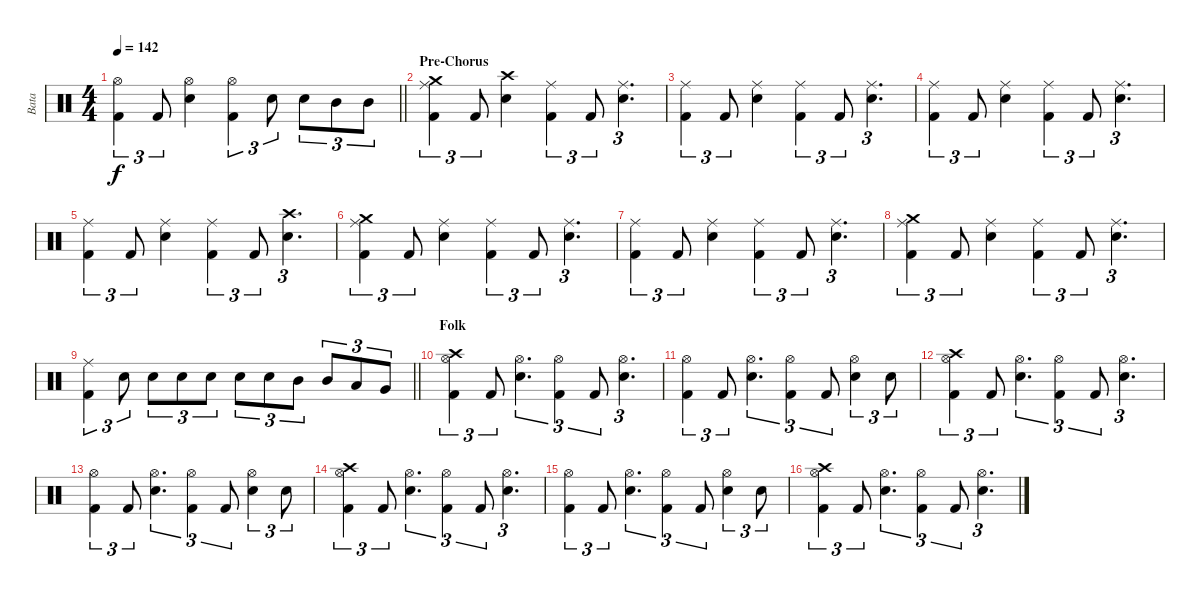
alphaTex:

\track ("Bata" "Bata") {instrument percussion}
\staff {score}
\articulation defaults
\ts (4 4)
\tempo 142
\clef neutral
\barLineRight lightlight
\ks c
("Hi-Hat (open)" "Kick (hit) 2").4{tu (3 2) dy f} "Kick (hit) 2".8{tu (3 2)} ("Hi-Hat (open)" "Electric Snare (hit)").4 ("Hi-Hat (open)" "Kick (hit) 2").4{tu (3 2)} "Electric Snare (hit)".8{tu (3 2)} "Electric Snare (hit)".8{tu (3 2)} "Mid Tom (hit)".8{tu (3 2)} "Mid Tom (hit)".8{tu (3 2)} |
\section ("" "Pre-Chorus")
("Crash medium (hit)" "Ride (middle)" "Kick (hit) 2").4{tu (3 2)} "Kick (hit) 2".8{tu (3 2)} ("Crash high (hit)" "Electric Snare (hit)").4 ("Ride (middle)" "Kick (hit) 2").4{tu (3 2)} "Kick (hit) 2".8{tu (3 2)} ("Ride (middle)" "Electric Snare (hit)").4{d tu (3 2)} |
("Ride (middle)" "Kick (hit) 2").4{tu (3 2)} "Kick (hit) 2".8{tu (3 2)} ("Ride (middle)" "Electric Snare (hit)").4 ("Ride (middle)" "Kick (hit) 2").4{tu (3 2)} "Kick (hit) 2".8{tu (3 2)} ("Ride (middle)" "Electric Snare (hit)").4{d tu (3 2)} |
("Ride (middle)" "Kick (hit) 2").4{tu (3 2)} "Kick (hit) 2".8{tu (3 2)} ("Ride (middle)" "Electric Snare (hit)").4 ("Ride (middle)" "Kick (hit) 2").4{tu (3 2)} "Kick (hit) 2".8{tu (3 2)} ("Ride (middle)" "Electric Snare (hit)").4{d tu (3 2)} |
("Ride (middle)" "Kick (hit) 2").4{tu (3 2)} "Kick (hit) 2".8{tu (3 2)} ("Ride (middle)" "Electric Snare (hit)").4 ("Ride (middle)" "Kick (hit) 2").4{tu (3 2)} "Kick (hit) 2".8{tu (3 2)} ("Crash high (hit)" "Electric Snare (hit)").4{d tu (3 2)} |
("Crash medium (hit)" "Ride (middle)" "Kick (hit) 2").4{tu (3 2)} "Kick (hit) 2".8{tu (3 2)} ("Ride (middle)" "Electric Snare (hit)").4 ("Ride (middle)" "Kick (hit) 2").4{tu (3 2)} "Kick (hit) 2".8{tu (3 2)} ("Ride (middle)" "Electric Snare (hit)").4{d tu (3 2)} |
("Ride (middle)" "Kick (hit) 2").4{tu (3 2)} "Kick (hit) 2".8{tu (3 2)} ("Ride (middle)" "Electric Snare (hit)").4 ("Ride (middle)" "Kick (hit) 2").4{tu (3 2)} "Kick (hit) 2".8{tu (3 2)} ("Ride (middle)" "Electric Snare (hit)").4{d tu (3 2)} |
("Crash medium (hit)" "Ride (middle)" "Kick (hit) 2").4{tu (3 2)} "Kick (hit) 2".8{tu (3 2)} ("Ride (middle)" "Electric Snare (hit)").4 ("Ride (middle)" "Kick (hit) 2").4{tu (3 2)} "Kick (hit) 2".8{tu (3 2)} ("Ride (middle)" "Electric Snare (hit)").4{d tu (3 2)} |
\barLineRight lightlight
("Ride (middle)" "Kick (hit) 2").4{tu (3 2)} "Electric Snare (hit)".8{tu (3 2)} "Electric Snare (hit)".8{tu (3 2)} "Electric Snare (hit)".8{tu (3 2)} "Electric Snare (hit)".8{tu (3 2)} "Electric Snare (hit)".8{tu (3 2)} "Electric Snare (hit)".8{tu (3 2)} "Mid Tom (hit)".8{tu (3 2)} "Mid Tom (hit)".8{tu (3 2)} "Low Tom (hit)".8{tu (3 2)} "Very Low Tom (hit)".8{tu (3 2)} |
\section ("" "Folk")
("Crash high (hit)" "Hi-Hat (open)" "Kick (hit) 2").4{tu (3 2)} "Kick (hit) 2".8{tu (3 2)} ("Hi-Hat (open)" "Electric Snare (hit)").4{d tu (3 2)} ("Hi-Hat (open)" "Kick (hit) 2").4{tu (3 2)} "Kick (hit) 2".8{tu (3 2)} ("Hi-Hat (open)" "Electric Snare (hit)").4{d tu (3 2)} |
("Hi-Hat (open)" "Kick (hit) 2").4{tu (3 2)} "Kick (hit) 2".8{tu (3 2)} ("Hi-Hat (open)" "Electric Snare (hit)").4{d tu (3 2)} ("Hi-Hat (open)" "Kick (hit) 2").4{tu (3 2)} "Kick (hit) 2".8{tu (3 2)} ("Hi-Hat (open)" "Electric Snare (hit)").4{tu (3 2)} "Electric Snare (hit)".8{tu (3 2)} |
("Crash high (hit)" "Hi-Hat (open)" "Kick (hit) 2").4{tu (3 2)} "Kick (hit) 2".8{tu (3 2)} ("Hi-Hat (open)" "Electric Snare (hit)").4{d tu (3 2)} ("Hi-Hat (open)" "Kick (hit) 2").4{tu (3 2)} "Kick (hit) 2".8{tu (3 2)} ("Hi-Hat (open)" "Electric Snare (hit)").4{d tu (3 2)} |
("Hi-Hat (open)" "Kick (hit) 2").4{tu (3 2)} "Kick (hit) 2".8{tu (3 2)} ("Hi-Hat (open)" "Electric Snare (hit)").4{d tu (3 2)} ("Hi-Hat (open)" "Kick (hit) 2").4{tu (3 2)} "Kick (hit) 2".8{tu (3 2)} ("Hi-Hat (open)" "Electric Snare (hit)").4{tu (3 2)} "Electric Snare (hit)".8{tu (3 2)} |
("Crash high (hit)" "Hi-Hat (open)" "Kick (hit) 2").4{tu (3 2)} "Kick (hit) 2".8{tu (3 2)} ("Hi-Hat (open)" "Electric Snare (hit)").4{d tu (3 2)} ("Hi-Hat (open)" "Kick (hit) 2").4{tu (3 2)} "Kick (hit) 2".8{tu (3 2)} ("Hi-Hat (open)" "Electric Snare (hit)").4{d tu (3 2)} |
("Hi-Hat (open)" "Kick (hit) 2").4{tu (3 2)} "Kick (hit) 2".8{tu (3 2)} ("Hi-Hat (open)" "Electric Snare (hit)").4{d tu (3 2)} ("Hi-Hat (open)" "Kick (hit) 2").4{tu (3 2)} "Kick (hit) 2".8{tu (3 2)} ("Hi-Hat (open)" "Electric Snare (hit)").4{tu (3 2)} "Electric Snare (hit)".8{tu (3 2)} |
("Crash high (hit)" "Hi-Hat (open)" "Kick (hit) 2").4{tu (3 2)} "Kick (hit) 2".8{tu (3 2)} ("Hi-Hat (open)" "Electric Snare (hit)").4{d tu (3 2)} ("Hi-Hat (open)" "Kick (hit) 2").4{tu (3 2)} "Kick (hit) 2".8{tu (3 2)} ("Hi-Hat (open)" "Electric Snare (hit)").4{d tu (3 2)}
